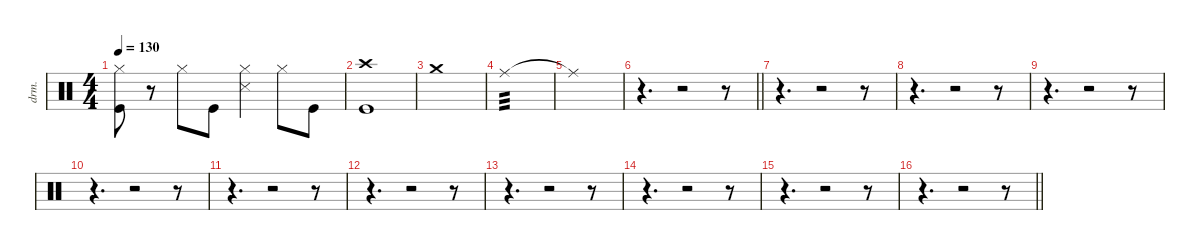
\defaultSystemsLayout 4
\hideDynamics
\bracketExtendMode nobrackets
\otherSystemsTrackNameOrientation horizontal
\track ("Manouche" "drm.") {instrument percussion}
\staff {score}
\articulation defaults
\ts (4 4)
\tempo 130
\clef neutral
\ks c
("Hi-Hat (closed)" "Kick (hit)").8{dy f} r.8 "Hi-Hat (closed)".8 "Kick (hit)".8 ("Hi-Hat (closed)" "Snare (side stick) 3").4 "Hi-Hat (closed)".8 "Kick (hit)".8 |
("Crash high (hit)" "Kick (hit)").1 |
"Crash medium (hit)".1{dy mf} |
"Ride (middle)".1{tp 3 dy mp} |
"Ride (middle)"{t}.1{dy f} |
\barLineRight lightlight
r.4{d} r.2 r.8 |
r.4{d} r.2 r.8 |
r.4{d} r.2 r.8 |
r.4{d} r.2 r.8 |
r.4{d} r.2 r.8 |
r.4{d} r.2 r.8 |
r.4{d} r.2 r.8 |
r.4{d} r.2 r.8 |
r.4{d} r.2 r.8 |
r.4{d} r.2 r.8 |
\barLineRight lightlight
r.4{d} r.2 r.8
